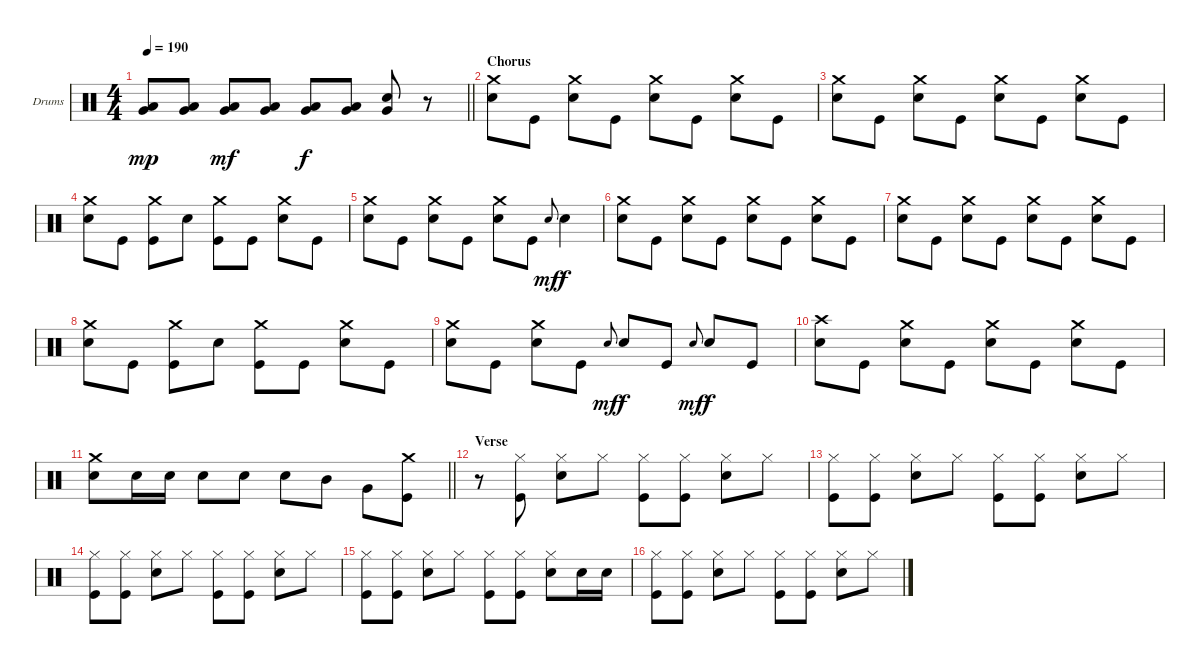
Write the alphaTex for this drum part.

\bracketExtendMode groupsimilarinstruments
\firstSystemTrackNameOrientation horizontal
\otherSystemsTrackNameOrientation horizontal
\track ("Drumkit" "Drums") {instrument percussion}
\staff {score}
\articulation defaults
\ts (4 4)
\tempo 190
\clef neutral
\barLineRight lightlight
\ks c
("Low Tom (hit)" "Very Low Tom (hit)").8{dy mp} ("Low Tom (hit)" "Very Low Tom (hit)").8 ("Low Tom (hit)" "Very Low Tom (hit)").8{dy mf} ("Low Tom (hit)" "Very Low Tom (hit)").8 ("Low Tom (hit)" "Very Low Tom (hit)").8{dy f} ("Low Tom (hit)" "Very Low Tom (hit)").8 ("Snare (hit) 2" "Very Low Tom (hit)").8 r.8 |
\section ("" "Chorus ")
("Crash medium (hit)" "Snare (hit) 2").8 "Kick (hit)".8 ("Crash medium (hit)" "Snare (hit) 2").8 "Kick (hit)".8 ("Crash medium (hit)" "Snare (hit) 2").8 "Kick (hit)".8 ("Crash medium (hit)" "Snare (hit) 2").8 "Kick (hit)".8 |
("Crash medium (hit)" "Snare (hit) 2").8 "Kick (hit)".8 ("Crash medium (hit)" "Snare (hit) 2").8 "Kick (hit)".8 ("Crash medium (hit)" "Snare (hit) 2").8 "Kick (hit)".8 ("Crash medium (hit)" "Snare (hit) 2").8 "Kick (hit)".8 |
("Crash medium (hit)" "Snare (hit) 2").8 "Kick (hit)".8 ("Crash medium (hit)" "Kick (hit)").8 "Snare (hit) 2".8 ("Crash medium (hit)" "Kick (hit)").8 "Kick (hit)".8 ("Crash medium (hit)" "Snare (hit) 2").8 "Kick (hit)".8 |
("Crash medium (hit)" "Snare (hit) 2").8 "Kick (hit)".8 ("Crash medium (hit)" "Snare (hit) 2").8 "Kick (hit)".8 ("Crash medium (hit)" "Snare (hit) 2").8 "Kick (hit)".8 "Snare (hit) 2".8{gr onbeat dy mf} "Snare (hit) 2".4{dy f} |
("Crash medium (hit)" "Snare (hit) 2").8 "Kick (hit)".8 ("Crash medium (hit)" "Snare (hit) 2").8 "Kick (hit)".8 ("Crash medium (hit)" "Snare (hit) 2").8 "Kick (hit)".8 ("Crash medium (hit)" "Snare (hit) 2").8 "Kick (hit)".8 |
("Crash medium (hit)" "Snare (hit) 2").8 "Kick (hit)".8 ("Crash medium (hit)" "Snare (hit) 2").8 "Kick (hit)".8 ("Crash medium (hit)" "Snare (hit) 2").8 "Kick (hit)".8 ("Crash medium (hit)" "Snare (hit) 2").8 "Kick (hit)".8 |
("Crash medium (hit)" "Snare (hit) 2").8 "Kick (hit)".8 ("Crash medium (hit)" "Kick (hit)").8 "Snare (hit) 2".8 ("Crash medium (hit)" "Kick (hit)").8 "Kick (hit)".8 ("Crash medium (hit)" "Snare (hit) 2").8 "Kick (hit)".8 |
("Crash medium (hit)" "Snare (hit) 2").8 "Kick (hit)".8 ("Crash medium (hit)" "Snare (hit) 2").8 "Kick (hit)".8 "Snare (hit) 2".8{gr onbeat dy mf} "Snare (hit) 2".8{dy f} "Kick (hit)".8 "Snare (hit) 2".8{gr onbeat dy mf} "Snare (hit) 2".8{dy f} "Kick (hit)".8 |
("Crash high (hit)" "Snare (hit) 2").8 "Kick (hit)".8 ("Crash medium (hit)" "Snare (hit) 2").8 "Kick (hit)".8 ("Crash medium (hit)" "Snare (hit) 2").8 "Kick (hit)".8 ("Crash medium (hit)" "Snare (hit) 2").8 "Kick (hit)".8 |
\barLineRight lightlight
("Crash medium (hit)" "Snare (hit) 2").8 "Snare (hit) 2".16 "Snare (hit) 2".16 "Snare (hit) 2".8 "Snare (hit) 2".8 "Snare (hit) 2".8 "Mid Tom (hit)".8 "Very Low Tom (hit)".8 ("Crash medium (hit)" "Kick (hit)").8 |
\section ("" "Verse ")
r.8 ("Hi-Hat (closed)" "Kick (hit)").8 ("Hi-Hat (closed)" "Snare (hit) 2").8 "Hi-Hat (closed)".8 ("Hi-Hat (closed)" "Kick (hit)").8 ("Hi-Hat (closed)" "Kick (hit)").8 ("Hi-Hat (closed)" "Snare (hit) 2").8 "Hi-Hat (closed)".8 |
("Hi-Hat (closed)" "Kick (hit)").8 ("Hi-Hat (closed)" "Kick (hit)").8 ("Hi-Hat (closed)" "Snare (hit) 2").8 "Hi-Hat (closed)".8 ("Hi-Hat (closed)" "Kick (hit)").8 ("Hi-Hat (closed)" "Kick (hit)").8 ("Hi-Hat (closed)" "Snare (hit) 2").8 "Hi-Hat (closed)".8 |
("Hi-Hat (closed)" "Kick (hit)").8 ("Hi-Hat (closed)" "Kick (hit)").8 ("Hi-Hat (closed)" "Snare (hit) 2").8 "Hi-Hat (closed)".8 ("Hi-Hat (closed)" "Kick (hit)").8 ("Hi-Hat (closed)" "Kick (hit)").8 ("Hi-Hat (closed)" "Snare (hit) 2").8 "Hi-Hat (closed)".8 |
("Hi-Hat (closed)" "Kick (hit)").8 ("Hi-Hat (closed)" "Kick (hit)").8 ("Hi-Hat (closed)" "Snare (hit) 2").8 "Hi-Hat (closed)".8 ("Hi-Hat (closed)" "Kick (hit)").8 ("Hi-Hat (closed)" "Kick (hit)").8 ("Hi-Hat (closed)" "Snare (hit) 2").8 "Snare (hit) 2".16 "Snare (hit) 2".16 |
("Hi-Hat (closed)" "Kick (hit)").8 ("Hi-Hat (closed)" "Kick (hit)").8 ("Hi-Hat (closed)" "Snare (hit) 2").8 "Hi-Hat (closed)".8 ("Hi-Hat (closed)" "Kick (hit)").8 ("Hi-Hat (closed)" "Kick (hit)").8 ("Hi-Hat (closed)" "Snare (hit) 2").8 "Hi-Hat (closed)".8
